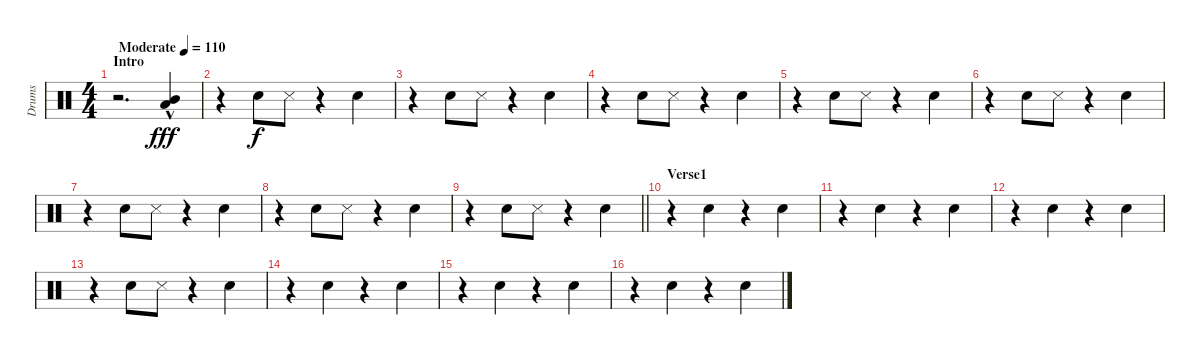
\track ("Drums" "Drums") {instrument percussion}
\staff {score}
\articulation defaults
\ts (4 4)
\section ("" "Intro")
\tempo (110 "Moderate")
\clef neutral
\ks c
r.2{d dy fff} ("Mid Tom (hit)"{hac} "Low Tom (hit)"{hac}).4 |
r.4 "Snare (hit) 2".8{dy f} "Snare (side stick) 3".8 r.4 "Snare (hit) 2".4 |
r.4 "Snare (hit) 2".8 "Snare (side stick) 3".8 r.4 "Snare (hit) 2".4 |
r.4 "Snare (hit) 2".8 "Snare (side stick) 3".8 r.4 "Snare (hit) 2".4 |
r.4 "Snare (hit) 2".8 "Snare (side stick) 3".8 r.4 "Snare (hit) 2".4 |
r.4 "Snare (hit) 2".8 "Snare (side stick) 3".8 r.4 "Snare (hit) 2".4 |
r.4 "Snare (hit) 2".8 "Snare (side stick) 3".8 r.4 "Snare (hit) 2".4 |
r.4 "Snare (hit) 2".8 "Snare (side stick) 3".8 r.4 "Snare (hit) 2".4 |
\barLineRight lightlight
r.4 "Snare (hit) 2".8 "Snare (side stick) 3".8 r.4 "Snare (hit) 2".4 |
\section ("" "Verse1")
r.4 "Snare (hit) 2".4 r.4 "Snare (hit) 2".4 |
r.4 "Snare (hit) 2".4 r.4 "Snare (hit) 2".4 |
r.4 "Snare (hit) 2".4 r.4 "Snare (hit) 2".4 |
r.4 "Snare (hit) 2".8 "Snare (side stick) 3".8 r.4 "Snare (hit) 2".4 |
r.4 "Snare (hit) 2".4 r.4 "Snare (hit) 2".4 |
r.4 "Snare (hit) 2".4 r.4 "Snare (hit) 2".4 |
r.4 "Snare (hit) 2".4 r.4 "Snare (hit) 2".4
